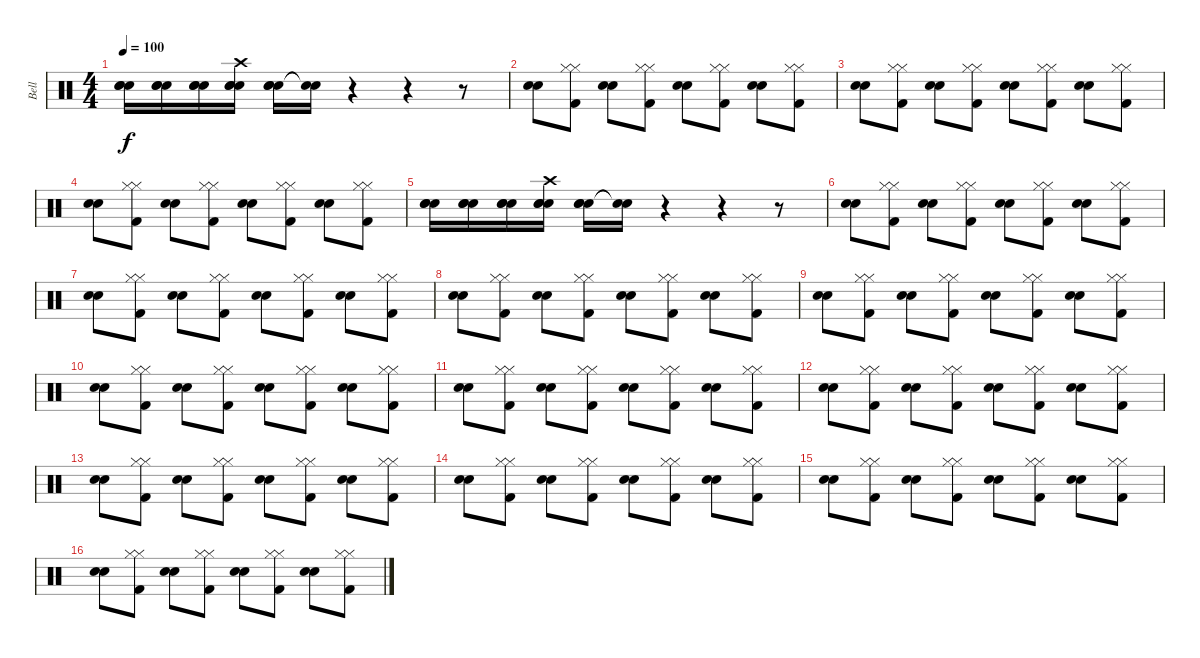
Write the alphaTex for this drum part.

\track ("Bell" "Bell") {instrument percussion}
\staff {score}
\articulation defaults
\ts (4 4)
\tempo 100
\clef neutral
\ks c
("Snare (hit) 2" "Snare (hit) 2" "Snare (hit) 2").16{dy f} ("Snare (hit) 2" "Snare (hit) 2" "Snare (hit) 2").16 ("Snare (hit) 2" "Snare (hit) 2" "Snare (hit) 2").16 ("Crash high (hit)" "Snare (hit) 2" "Snare (hit) 2" "Snare (hit) 2").16 ("Snare (hit) 2" "Snare (hit) 2" "Snare (hit) 2").16 ("Snare (hit)"{t} "Snare (hit)"{t}).16 r.4 r.4 r.8 |
("Snare (hit) 2" "Snare (hit) 2").8 ("Hi-Hat (closed)" "Kick (hit) 2" "Hi-Hat (closed)").8 ("Snare (hit) 2" "Snare (hit) 2").8 ("Hi-Hat (closed)" "Kick (hit) 2" "Hi-Hat (closed)").8 ("Snare (hit) 2" "Snare (hit) 2").8 ("Hi-Hat (closed)" "Kick (hit) 2" "Hi-Hat (closed)").8 ("Snare (hit) 2" "Snare (hit) 2").8 ("Hi-Hat (closed)" "Kick (hit) 2" "Hi-Hat (closed)").8 |
("Snare (hit) 2" "Snare (hit) 2").8 ("Hi-Hat (closed)" "Kick (hit) 2" "Hi-Hat (closed)").8 ("Snare (hit) 2" "Snare (hit) 2").8 ("Hi-Hat (closed)" "Kick (hit) 2" "Hi-Hat (closed)").8 ("Snare (hit) 2" "Snare (hit) 2").8 ("Hi-Hat (closed)" "Kick (hit) 2" "Hi-Hat (closed)").8 ("Snare (hit) 2" "Snare (hit) 2").8 ("Hi-Hat (closed)" "Kick (hit) 2" "Hi-Hat (closed)").8 |
("Snare (hit) 2" "Snare (hit) 2").8 ("Hi-Hat (closed)" "Kick (hit) 2" "Hi-Hat (closed)").8 ("Snare (hit) 2" "Snare (hit) 2").8 ("Hi-Hat (closed)" "Kick (hit) 2" "Hi-Hat (closed)").8 ("Snare (hit) 2" "Snare (hit) 2").8 ("Hi-Hat (closed)" "Kick (hit) 2" "Hi-Hat (closed)").8 ("Snare (hit) 2" "Snare (hit) 2").8 ("Hi-Hat (closed)" "Kick (hit) 2" "Hi-Hat (closed)").8 |
("Snare (hit) 2" "Snare (hit) 2" "Snare (hit) 2").16 ("Snare (hit) 2" "Snare (hit) 2" "Snare (hit) 2").16 ("Snare (hit) 2" "Snare (hit) 2" "Snare (hit) 2").16 ("Crash high (hit)" "Snare (hit) 2" "Snare (hit) 2" "Snare (hit) 2").16 ("Snare (hit) 2" "Snare (hit) 2" "Snare (hit) 2").16 ("Snare (hit)"{t} "Snare (hit)"{t}).16 r.4 r.4 r.8 |
("Snare (hit) 2" "Snare (hit) 2").8 ("Hi-Hat (closed)" "Kick (hit) 2" "Hi-Hat (closed)").8 ("Snare (hit) 2" "Snare (hit) 2").8 ("Hi-Hat (closed)" "Kick (hit) 2" "Hi-Hat (closed)").8 ("Snare (hit) 2" "Snare (hit) 2").8 ("Hi-Hat (closed)" "Kick (hit) 2" "Hi-Hat (closed)").8 ("Snare (hit) 2" "Snare (hit) 2").8 ("Hi-Hat (closed)" "Kick (hit) 2" "Hi-Hat (closed)").8 |
("Snare (hit) 2" "Snare (hit) 2").8 ("Hi-Hat (closed)" "Kick (hit) 2" "Hi-Hat (closed)").8 ("Snare (hit) 2" "Snare (hit) 2").8 ("Hi-Hat (closed)" "Kick (hit) 2" "Hi-Hat (closed)").8 ("Snare (hit) 2" "Snare (hit) 2").8 ("Hi-Hat (closed)" "Kick (hit) 2" "Hi-Hat (closed)").8 ("Snare (hit) 2" "Snare (hit) 2").8 ("Hi-Hat (closed)" "Kick (hit) 2" "Hi-Hat (closed)").8 |
("Snare (hit) 2" "Snare (hit) 2").8 ("Hi-Hat (closed)" "Kick (hit) 2" "Hi-Hat (closed)").8 ("Snare (hit) 2" "Snare (hit) 2").8 ("Hi-Hat (closed)" "Kick (hit) 2" "Hi-Hat (closed)").8 ("Snare (hit) 2" "Snare (hit) 2").8 ("Hi-Hat (closed)" "Kick (hit) 2" "Hi-Hat (closed)").8 ("Snare (hit) 2" "Snare (hit) 2").8 ("Hi-Hat (closed)" "Kick (hit) 2" "Hi-Hat (closed)").8 |
("Snare (hit) 2" "Snare (hit) 2").8 ("Hi-Hat (closed)" "Kick (hit) 2" "Hi-Hat (closed)").8 ("Snare (hit) 2" "Snare (hit) 2").8 ("Hi-Hat (closed)" "Kick (hit) 2" "Hi-Hat (closed)").8 ("Snare (hit) 2" "Snare (hit) 2").8 ("Hi-Hat (closed)" "Kick (hit) 2" "Hi-Hat (closed)").8 ("Snare (hit) 2" "Snare (hit) 2").8 ("Hi-Hat (closed)" "Kick (hit) 2" "Hi-Hat (closed)").8 |
("Snare (hit) 2" "Snare (hit) 2").8 ("Hi-Hat (closed)" "Kick (hit) 2" "Hi-Hat (closed)").8 ("Snare (hit) 2" "Snare (hit) 2").8 ("Hi-Hat (closed)" "Kick (hit) 2" "Hi-Hat (closed)").8 ("Snare (hit) 2" "Snare (hit) 2").8 ("Hi-Hat (closed)" "Kick (hit) 2" "Hi-Hat (closed)").8 ("Snare (hit) 2" "Snare (hit) 2").8 ("Hi-Hat (closed)" "Kick (hit) 2" "Hi-Hat (closed)").8 |
("Snare (hit) 2" "Snare (hit) 2").8 ("Hi-Hat (closed)" "Kick (hit) 2" "Hi-Hat (closed)").8 ("Snare (hit) 2" "Snare (hit) 2").8 ("Hi-Hat (closed)" "Kick (hit) 2" "Hi-Hat (closed)").8 ("Snare (hit) 2" "Snare (hit) 2").8 ("Hi-Hat (closed)" "Kick (hit) 2" "Hi-Hat (closed)").8 ("Snare (hit) 2" "Snare (hit) 2").8 ("Hi-Hat (closed)" "Kick (hit) 2" "Hi-Hat (closed)").8 |
("Snare (hit) 2" "Snare (hit) 2").8 ("Hi-Hat (closed)" "Kick (hit) 2" "Hi-Hat (closed)").8 ("Snare (hit) 2" "Snare (hit) 2").8 ("Hi-Hat (closed)" "Kick (hit) 2" "Hi-Hat (closed)").8 ("Snare (hit) 2" "Snare (hit) 2").8 ("Hi-Hat (closed)" "Kick (hit) 2" "Hi-Hat (closed)").8 ("Snare (hit) 2" "Snare (hit) 2").8 ("Hi-Hat (closed)" "Kick (hit) 2" "Hi-Hat (closed)").8 |
("Snare (hit) 2" "Snare (hit) 2").8 ("Hi-Hat (closed)" "Kick (hit) 2" "Hi-Hat (closed)").8 ("Snare (hit) 2" "Snare (hit) 2").8 ("Hi-Hat (closed)" "Kick (hit) 2" "Hi-Hat (closed)").8 ("Snare (hit) 2" "Snare (hit) 2").8 ("Hi-Hat (closed)" "Kick (hit) 2" "Hi-Hat (closed)").8 ("Snare (hit) 2" "Snare (hit) 2").8 ("Hi-Hat (closed)" "Kick (hit) 2" "Hi-Hat (closed)").8 |
("Snare (hit) 2" "Snare (hit) 2").8 ("Hi-Hat (closed)" "Kick (hit) 2" "Hi-Hat (closed)").8 ("Snare (hit) 2" "Snare (hit) 2").8 ("Hi-Hat (closed)" "Kick (hit) 2" "Hi-Hat (closed)").8 ("Snare (hit) 2" "Snare (hit) 2").8 ("Hi-Hat (closed)" "Kick (hit) 2" "Hi-Hat (closed)").8 ("Snare (hit) 2" "Snare (hit) 2").8 ("Hi-Hat (closed)" "Kick (hit) 2" "Hi-Hat (closed)").8 |
("Snare (hit) 2" "Snare (hit) 2").8 ("Hi-Hat (closed)" "Kick (hit) 2" "Hi-Hat (closed)").8 ("Snare (hit) 2" "Snare (hit) 2").8 ("Hi-Hat (closed)" "Kick (hit) 2" "Hi-Hat (closed)").8 ("Snare (hit) 2" "Snare (hit) 2").8 ("Hi-Hat (closed)" "Kick (hit) 2" "Hi-Hat (closed)").8 ("Snare (hit) 2" "Snare (hit) 2").8 ("Hi-Hat (closed)" "Kick (hit) 2" "Hi-Hat (closed)").8 |
("Snare (hit) 2" "Snare (hit) 2").8 ("Hi-Hat (closed)" "Kick (hit) 2" "Hi-Hat (closed)").8 ("Snare (hit) 2" "Snare (hit) 2").8 ("Hi-Hat (closed)" "Kick (hit) 2" "Hi-Hat (closed)").8 ("Snare (hit) 2" "Snare (hit) 2").8 ("Hi-Hat (closed)" "Kick (hit) 2" "Hi-Hat (closed)").8 ("Snare (hit) 2" "Snare (hit) 2").8 ("Hi-Hat (closed)" "Kick (hit) 2" "Hi-Hat (closed)").8
